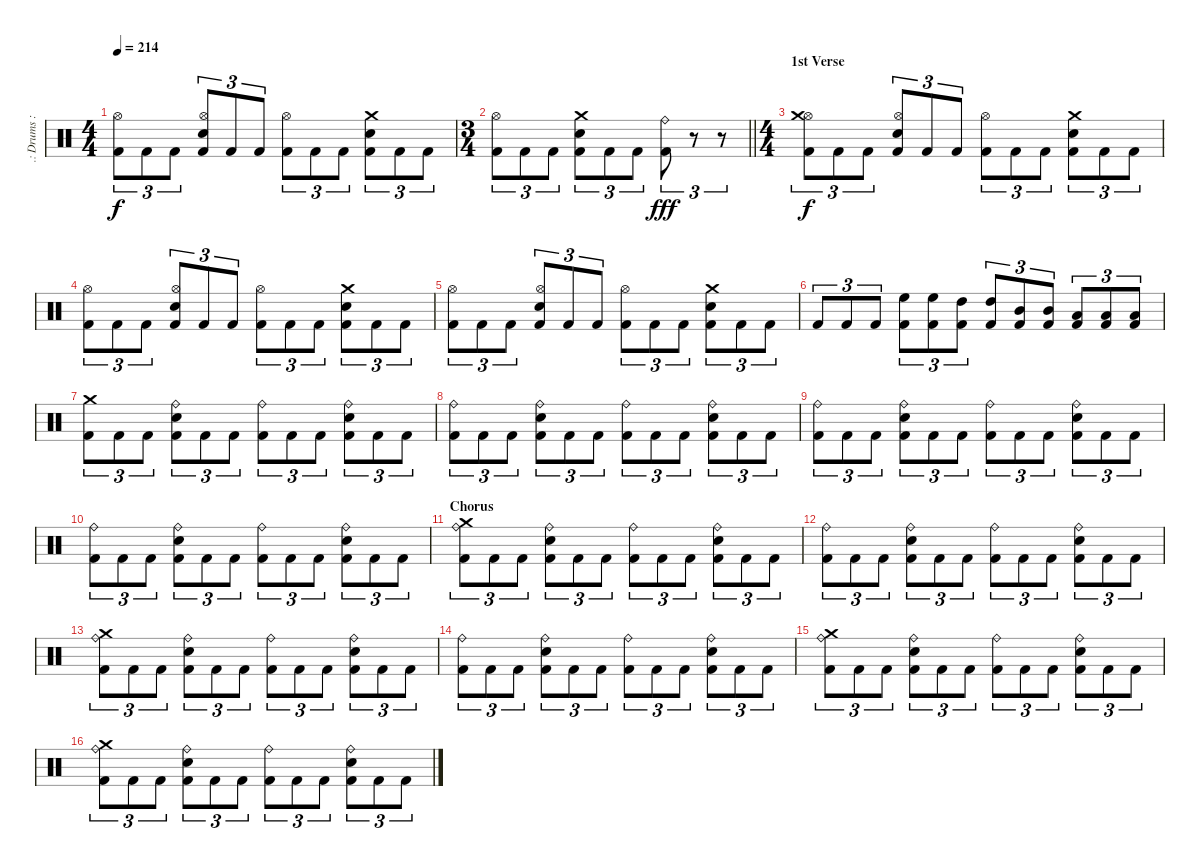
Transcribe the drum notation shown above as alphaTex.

\track (".: Drums :." ".: Drums :") {instrument percussion}
\staff {score}
\articulation defaults
\ts (4 4)
\tempo 214
\clef neutral
\ks c
("Kick (hit) 2" "Hi-Hat (open)").8{tu (3 2) dy f} "Kick (hit) 2".8{tu (3 2)} "Kick (hit) 2".8{tu (3 2)} ("Kick (hit) 2" "Hi-Hat (open)" "Snare (hit) 2").8{tu (3 2)} "Kick (hit) 2".8{tu (3 2)} "Kick (hit) 2".8{tu (3 2)} ("Kick (hit) 2" "Hi-Hat (open)").8{tu (3 2)} "Kick (hit) 2".8{tu (3 2)} "Kick (hit) 2".8{tu (3 2)} ("Kick (hit) 2" "Crash medium (hit)" "Snare (hit) 2").8{tu (3 2)} "Kick (hit) 2".8{tu (3 2)} "Kick (hit) 2".8{tu (3 2)} |
\ts (3 4)
\barLineRight lightlight
("Kick (hit) 2" "Hi-Hat (open)").8{tu (3 2)} "Kick (hit) 2".8{tu (3 2)} "Kick (hit) 2".8{tu (3 2)} ("Kick (hit) 2" "Crash medium (hit)" "Snare (hit) 2").8{tu (3 2)} "Kick (hit) 2".8{tu (3 2)} "Kick (hit) 2".8{tu (3 2)} ("Kick (hit) 2" "Ride (bell)").8{tu (3 2) dy fff} r.8{tu (3 2)} r.8{tu (3 2)} |
\ts (4 4)
\section ("" "1st Verse")
("Kick (hit) 2" "Hi-Hat (open)" "Crash medium (hit)").8{tu (3 2) dy f} "Kick (hit) 2".8{tu (3 2)} "Kick (hit) 2".8{tu (3 2)} ("Kick (hit) 2" "Hi-Hat (open)" "Snare (hit) 2").8{tu (3 2)} "Kick (hit) 2".8{tu (3 2)} "Kick (hit) 2".8{tu (3 2)} ("Kick (hit) 2" "Hi-Hat (open)").8{tu (3 2)} "Kick (hit) 2".8{tu (3 2)} "Kick (hit) 2".8{tu (3 2)} ("Kick (hit) 2" "Crash medium (hit)" "Snare (hit) 2").8{tu (3 2)} "Kick (hit) 2".8{tu (3 2)} "Kick (hit) 2".8{tu (3 2)} |
("Kick (hit) 2" "Hi-Hat (open)").8{tu (3 2)} "Kick (hit) 2".8{tu (3 2)} "Kick (hit) 2".8{tu (3 2)} ("Kick (hit) 2" "Hi-Hat (open)" "Snare (hit) 2").8{tu (3 2)} "Kick (hit) 2".8{tu (3 2)} "Kick (hit) 2".8{tu (3 2)} ("Kick (hit) 2" "Hi-Hat (open)").8{tu (3 2)} "Kick (hit) 2".8{tu (3 2)} "Kick (hit) 2".8{tu (3 2)} ("Kick (hit) 2" "Crash medium (hit)" "Snare (hit) 2").8{tu (3 2)} "Kick (hit) 2".8{tu (3 2)} "Kick (hit) 2".8{tu (3 2)} |
("Kick (hit) 2" "Hi-Hat (open)").8{tu (3 2)} "Kick (hit) 2".8{tu (3 2)} "Kick (hit) 2".8{tu (3 2)} ("Kick (hit) 2" "Hi-Hat (open)" "Snare (hit) 2").8{tu (3 2)} "Kick (hit) 2".8{tu (3 2)} "Kick (hit) 2".8{tu (3 2)} ("Kick (hit) 2" "Hi-Hat (open)").8{tu (3 2)} "Kick (hit) 2".8{tu (3 2)} "Kick (hit) 2".8{tu (3 2)} ("Kick (hit) 2" "Crash medium (hit)" "Snare (hit) 2").8{tu (3 2)} "Kick (hit) 2".8{tu (3 2)} "Kick (hit) 2".8{tu (3 2)} |
"Kick (hit) 2".8{tu (3 2)} "Kick (hit) 2".8{tu (3 2)} "Kick (hit) 2".8{tu (3 2)} ("Kick (hit) 2" "High Floor Tom (hit)").8{tu (3 2)} ("Kick (hit) 2" "High Floor Tom (hit)").8{tu (3 2)} ("Kick (hit) 2" "High Tom (hit)").8{tu (3 2)} ("Kick (hit) 2" "High Tom (hit)").8{tu (3 2)} ("Kick (hit) 2" "Mid Tom (hit)").8{tu (3 2)} ("Kick (hit) 2" "Mid Tom (hit)").8{tu (3 2)} ("Kick (hit) 2" "Low Tom (hit)").8{tu (3 2)} ("Kick (hit) 2" "Low Tom (hit)").8{tu (3 2)} ("Kick (hit) 2" "Low Tom (hit)").8{tu (3 2)} |
("Kick (hit) 2" "Crash medium (hit)").8{tu (3 2)} "Kick (hit) 2".8{tu (3 2)} "Kick (hit) 2".8{tu (3 2)} ("Kick (hit) 2" "Ride (bell)" "Snare (hit) 2").8{tu (3 2)} "Kick (hit) 2".8{tu (3 2)} "Kick (hit) 2".8{tu (3 2)} ("Kick (hit) 2" "Ride (bell)").8{tu (3 2)} "Kick (hit) 2".8{tu (3 2)} "Kick (hit) 2".8{tu (3 2)} ("Kick (hit) 2" "Ride (bell)" "Snare (hit) 2").8{tu (3 2)} "Kick (hit) 2".8{tu (3 2)} "Kick (hit) 2".8{tu (3 2)} |
("Kick (hit) 2" "Ride (bell)").8{tu (3 2)} "Kick (hit) 2".8{tu (3 2)} "Kick (hit) 2".8{tu (3 2)} ("Kick (hit) 2" "Ride (bell)" "Snare (hit) 2").8{tu (3 2)} "Kick (hit) 2".8{tu (3 2)} "Kick (hit) 2".8{tu (3 2)} ("Kick (hit) 2" "Ride (bell)").8{tu (3 2)} "Kick (hit) 2".8{tu (3 2)} "Kick (hit) 2".8{tu (3 2)} ("Kick (hit) 2" "Ride (bell)" "Snare (hit) 2").8{tu (3 2)} "Kick (hit) 2".8{tu (3 2)} "Kick (hit) 2".8{tu (3 2)} |
("Kick (hit) 2" "Ride (bell)").8{tu (3 2)} "Kick (hit) 2".8{tu (3 2)} "Kick (hit) 2".8{tu (3 2)} ("Kick (hit) 2" "Ride (bell)" "Snare (hit) 2").8{tu (3 2)} "Kick (hit) 2".8{tu (3 2)} "Kick (hit) 2".8{tu (3 2)} ("Kick (hit) 2" "Ride (bell)").8{tu (3 2)} "Kick (hit) 2".8{tu (3 2)} "Kick (hit) 2".8{tu (3 2)} ("Kick (hit) 2" "Ride (bell)" "Snare (hit) 2").8{tu (3 2)} "Kick (hit) 2".8{tu (3 2)} "Kick (hit) 2".8{tu (3 2)} |
("Kick (hit) 2" "Ride (bell)").8{tu (3 2)} "Kick (hit) 2".8{tu (3 2)} "Kick (hit) 2".8{tu (3 2)} ("Kick (hit) 2" "Ride (bell)" "Snare (hit) 2").8{tu (3 2)} "Kick (hit) 2".8{tu (3 2)} "Kick (hit) 2".8{tu (3 2)} ("Kick (hit) 2" "Ride (bell)").8{tu (3 2)} "Kick (hit) 2".8{tu (3 2)} "Kick (hit) 2".8{tu (3 2)} ("Kick (hit) 2" "Ride (bell)" "Snare (hit) 2").8{tu (3 2)} "Kick (hit) 2".8{tu (3 2)} "Kick (hit) 2".8{tu (3 2)} |
\section ("" "Chorus")
("Kick (hit) 2" "Ride (bell)" "Crash medium (hit)").8{tu (3 2)} "Kick (hit) 2".8{tu (3 2)} "Kick (hit) 2".8{tu (3 2)} ("Kick (hit) 2" "Ride (bell)" "Snare (hit) 2").8{tu (3 2)} "Kick (hit) 2".8{tu (3 2)} "Kick (hit) 2".8{tu (3 2)} ("Kick (hit) 2" "Ride (bell)").8{tu (3 2)} "Kick (hit) 2".8{tu (3 2)} "Kick (hit) 2".8{tu (3 2)} ("Kick (hit) 2" "Ride (bell)" "Snare (hit) 2").8{tu (3 2)} "Kick (hit) 2".8{tu (3 2)} "Kick (hit) 2".8{tu (3 2)} |
("Kick (hit) 2" "Ride (bell)").8{tu (3 2)} "Kick (hit) 2".8{tu (3 2)} "Kick (hit) 2".8{tu (3 2)} ("Kick (hit) 2" "Ride (bell)" "Snare (hit) 2").8{tu (3 2)} "Kick (hit) 2".8{tu (3 2)} "Kick (hit) 2".8{tu (3 2)} ("Kick (hit) 2" "Ride (bell)").8{tu (3 2)} "Kick (hit) 2".8{tu (3 2)} "Kick (hit) 2".8{tu (3 2)} ("Kick (hit) 2" "Ride (bell)" "Snare (hit) 2").8{tu (3 2)} "Kick (hit) 2".8{tu (3 2)} "Kick (hit) 2".8{tu (3 2)} |
("Kick (hit) 2" "Ride (bell)" "Crash medium (hit)").8{tu (3 2)} "Kick (hit) 2".8{tu (3 2)} "Kick (hit) 2".8{tu (3 2)} ("Kick (hit) 2" "Ride (bell)" "Snare (hit) 2").8{tu (3 2)} "Kick (hit) 2".8{tu (3 2)} "Kick (hit) 2".8{tu (3 2)} ("Kick (hit) 2" "Ride (bell)").8{tu (3 2)} "Kick (hit) 2".8{tu (3 2)} "Kick (hit) 2".8{tu (3 2)} ("Kick (hit) 2" "Ride (bell)" "Snare (hit) 2").8{tu (3 2)} "Kick (hit) 2".8{tu (3 2)} "Kick (hit) 2".8{tu (3 2)} |
("Kick (hit) 2" "Ride (bell)").8{tu (3 2)} "Kick (hit) 2".8{tu (3 2)} "Kick (hit) 2".8{tu (3 2)} ("Kick (hit) 2" "Ride (bell)" "Snare (hit) 2").8{tu (3 2)} "Kick (hit) 2".8{tu (3 2)} "Kick (hit) 2".8{tu (3 2)} ("Kick (hit) 2" "Ride (bell)").8{tu (3 2)} "Kick (hit) 2".8{tu (3 2)} "Kick (hit) 2".8{tu (3 2)} ("Kick (hit) 2" "Ride (bell)" "Snare (hit) 2").8{tu (3 2)} "Kick (hit) 2".8{tu (3 2)} "Kick (hit) 2".8{tu (3 2)} |
("Kick (hit) 2" "Ride (bell)" "Crash medium (hit)").8{tu (3 2)} "Kick (hit) 2".8{tu (3 2)} "Kick (hit) 2".8{tu (3 2)} ("Kick (hit) 2" "Ride (bell)" "Snare (hit) 2").8{tu (3 2)} "Kick (hit) 2".8{tu (3 2)} "Kick (hit) 2".8{tu (3 2)} ("Kick (hit) 2" "Ride (bell)").8{tu (3 2)} "Kick (hit) 2".8{tu (3 2)} "Kick (hit) 2".8{tu (3 2)} ("Kick (hit) 2" "Ride (bell)" "Snare (hit) 2").8{tu (3 2)} "Kick (hit) 2".8{tu (3 2)} "Kick (hit) 2".8{tu (3 2)} |
("Kick (hit) 2" "Ride (bell)" "Crash medium (hit)").8{tu (3 2)} "Kick (hit) 2".8{tu (3 2)} "Kick (hit) 2".8{tu (3 2)} ("Kick (hit) 2" "Ride (bell)" "Snare (hit) 2").8{tu (3 2)} "Kick (hit) 2".8{tu (3 2)} "Kick (hit) 2".8{tu (3 2)} ("Kick (hit) 2" "Ride (bell)").8{tu (3 2)} "Kick (hit) 2".8{tu (3 2)} "Kick (hit) 2".8{tu (3 2)} ("Kick (hit) 2" "Ride (bell)" "Snare (hit) 2").8{tu (3 2)} "Kick (hit) 2".8{tu (3 2)} "Kick (hit) 2".8{tu (3 2)}
